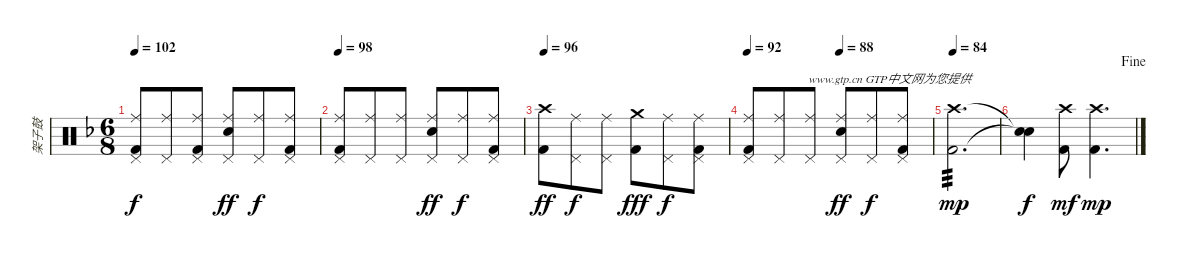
\track ("架子鼓" "架子鼓") {instrument percussion}
\staff {score}
\articulation defaults
\ts (6 8)
\tempo 102
\clef neutral
\ks f
("Ride (middle)" "Pedal Hi-Hat (hit)" "Kick (hit) 2").8{dy f} ("Ride (middle)" "Pedal Hi-Hat (hit)").8 ("Ride (middle)" "Pedal Hi-Hat (hit)" "Kick (hit) 2").8 ("Ride (middle)" "Electric Snare (hit)" "Pedal Hi-Hat (hit)").8{dy ff} ("Ride (middle)" "Pedal Hi-Hat (hit)").8{dy f} ("Ride (middle)" "Pedal Hi-Hat (hit)" "Kick (hit) 2").8 |
\tempo 98
("Ride (middle)" "Pedal Hi-Hat (hit)" "Kick (hit) 2").8 ("Ride (middle)" "Pedal Hi-Hat (hit)").8 ("Ride (middle)" "Pedal Hi-Hat (hit)").8 ("Ride (middle)" "Electric Snare (hit)" "Pedal Hi-Hat (hit)").8{dy ff} ("Ride (middle)" "Pedal Hi-Hat (hit)").8{dy f} ("Ride (middle)" "Pedal Hi-Hat (hit)" "Kick (hit) 2").8 |
\tempo 96
("Crash high (hit)" "Kick (hit) 2").8{dy ff} ("Ride (middle)" "Pedal Hi-Hat (hit)").8{dy f} ("Ride (middle)" "Pedal Hi-Hat (hit)").8 ("Crash medium (hit)" "Kick (hit) 2").8{dy fff} ("Ride (middle)" "Pedal Hi-Hat (hit)").8{dy f} ("Ride (middle)" "Pedal Hi-Hat (hit)" "Kick (hit) 2").8 |
\tempo 92
\tempo (88 0.5)
("Ride (middle)" "Pedal Hi-Hat (hit)" "Kick (hit) 2").8{txt "                    www.gtp.cn GTP中文网为您提供"} ("Ride (middle)" "Pedal Hi-Hat (hit)").8 ("Ride (middle)" "Pedal Hi-Hat (hit)").8 ("Ride (middle)" "Electric Snare (hit)" "Pedal Hi-Hat (hit)").8{dy ff} ("Ride (middle)" "Pedal Hi-Hat (hit)").8{dy f} ("Ride (middle)" "Pedal Hi-Hat (hit)" "Kick (hit) 2").8 |
\tempo 84
("Crash high (hit)" "Kick (hit) 2").2{d tp 3 dy mp} |
\jump fine
("Snare (hit)"{t} "Snare (hit)"{t}).4{dy f} ("Crash high (hit)" "Kick (hit) 2").8{dy mf} ("Crash high (hit)" "Kick (hit) 2").4{d dy mp}
